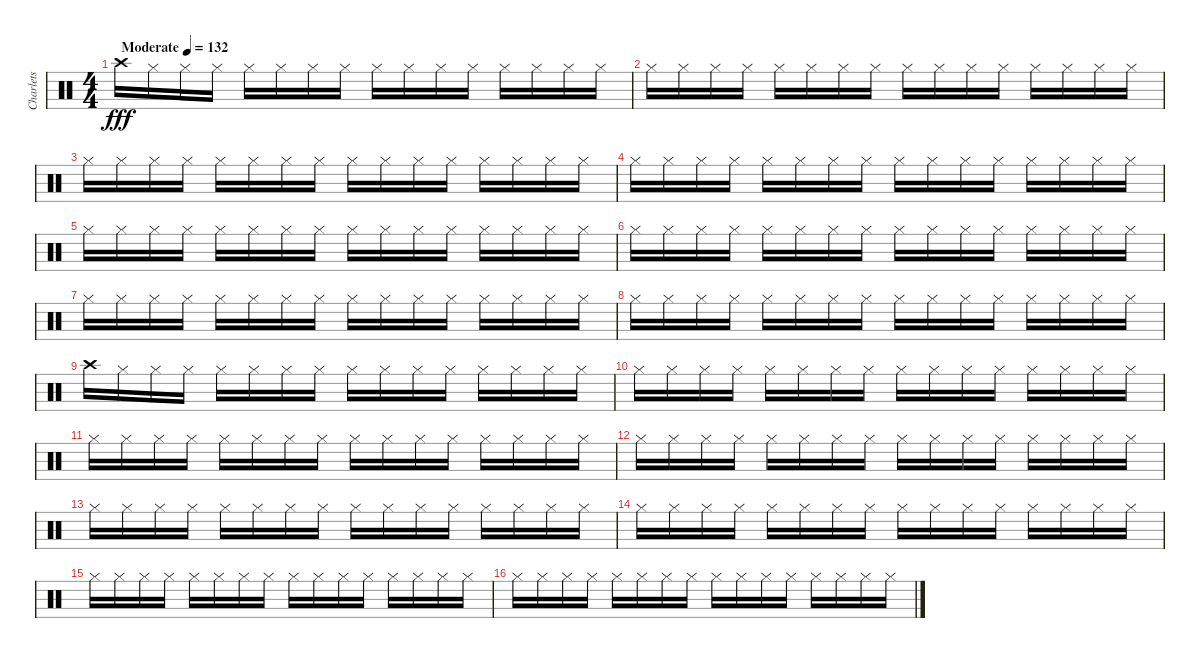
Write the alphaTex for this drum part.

\track ("Charlets" "Charlets") {instrument percussion}
\staff {score}
\articulation defaults
\ts (4 4)
\tempo (132 "Moderate")
\clef neutral
\ks c "Crash high (hit)".16{dy fff} "Hi-Hat (closed)".16 "Hi-Hat (closed)".16 "Hi-Hat (closed)".16 "Hi-Hat (closed)".16 "Hi-Hat (closed)".16 "Hi-Hat (closed)".16 "Hi-Hat (closed)".16 "Hi-Hat (closed)".16 "Hi-Hat (closed)".16 "Hi-Hat (closed)".16 "Hi-Hat (closed)".16 "Hi-Hat (closed)".16 "Hi-Hat (closed)".16 "Hi-Hat (closed)".16 "Hi-Hat (closed)".16
|
"Hi-Hat (closed)".16 "Hi-Hat (closed)".16 "Hi-Hat (closed)".16 "Hi-Hat (closed)".16 "Hi-Hat (closed)".16 "Hi-Hat (closed)".16 "Hi-Hat (closed)".16 "Hi-Hat (closed)".16 "Hi-Hat (closed)".16 "Hi-Hat (closed)".16 "Hi-Hat (closed)".16 "Hi-Hat (closed)".16 "Hi-Hat (closed)".16 "Hi-Hat (closed)".16 "Hi-Hat (closed)".16 "Hi-Hat (closed)".16 |
"Hi-Hat (closed)".16 "Hi-Hat (closed)".16 "Hi-Hat (closed)".16 "Hi-Hat (closed)".16 "Hi-Hat (closed)".16 "Hi-Hat (closed)".16 "Hi-Hat (closed)".16 "Hi-Hat (closed)".16 "Hi-Hat (closed)".16 "Hi-Hat (closed)".16 "Hi-Hat (closed)".16 "Hi-Hat (closed)".16 "Hi-Hat (closed)".16 "Hi-Hat (closed)".16 "Hi-Hat (closed)".16 "Hi-Hat (closed)".16 |
"Hi-Hat (closed)".16 "Hi-Hat (closed)".16 "Hi-Hat (closed)".16 "Hi-Hat (closed)".16 "Hi-Hat (closed)".16 "Hi-Hat (closed)".16 "Hi-Hat (closed)".16 "Hi-Hat (closed)".16 "Hi-Hat (closed)".16 "Hi-Hat (closed)".16 "Hi-Hat (closed)".16 "Hi-Hat (closed)".16 "Hi-Hat (closed)".16 "Hi-Hat (closed)".16 "Hi-Hat (closed)".16 "Hi-Hat (closed)".16 |
"Hi-Hat (closed)".16 "Hi-Hat (closed)".16 "Hi-Hat (closed)".16 "Hi-Hat (closed)".16 "Hi-Hat (closed)".16 "Hi-Hat (closed)".16 "Hi-Hat (closed)".16 "Hi-Hat (closed)".16 "Hi-Hat (closed)".16 "Hi-Hat (closed)".16 "Hi-Hat (closed)".16 "Hi-Hat (closed)".16 "Hi-Hat (closed)".16 "Hi-Hat (closed)".16 "Hi-Hat (closed)".16 "Hi-Hat (closed)".16 |
"Hi-Hat (closed)".16 "Hi-Hat (closed)".16 "Hi-Hat (closed)".16 "Hi-Hat (closed)".16 "Hi-Hat (closed)".16 "Hi-Hat (closed)".16 "Hi-Hat (closed)".16 "Hi-Hat (closed)".16 "Hi-Hat (closed)".16 "Hi-Hat (closed)".16 "Hi-Hat (closed)".16 "Hi-Hat (closed)".16 "Hi-Hat (closed)".16 "Hi-Hat (closed)".16 "Hi-Hat (closed)".16 "Hi-Hat (closed)".16 |
"Hi-Hat (closed)".16 "Hi-Hat (closed)".16 "Hi-Hat (closed)".16 "Hi-Hat (closed)".16 "Hi-Hat (closed)".16 "Hi-Hat (closed)".16 "Hi-Hat (closed)".16 "Hi-Hat (closed)".16 "Hi-Hat (closed)".16 "Hi-Hat (closed)".16 "Hi-Hat (closed)".16 "Hi-Hat (closed)".16 "Hi-Hat (closed)".16 "Hi-Hat (closed)".16 "Hi-Hat (closed)".16 "Hi-Hat (closed)".16 |
"Hi-Hat (closed)".16 "Hi-Hat (closed)".16 "Hi-Hat (closed)".16 "Hi-Hat (closed)".16 "Hi-Hat (closed)".16 "Hi-Hat (closed)".16 "Hi-Hat (closed)".16 "Hi-Hat (closed)".16 "Hi-Hat (closed)".16 "Hi-Hat (closed)".16 "Hi-Hat (closed)".16 "Hi-Hat (closed)".16 "Hi-Hat (closed)".16 "Hi-Hat (closed)".16 "Hi-Hat (closed)".16 "Hi-Hat (closed)".16 |
"Crash high (hit)".16 "Hi-Hat (closed)".16 "Hi-Hat (closed)".16 "Hi-Hat (closed)".16 "Hi-Hat (closed)".16 "Hi-Hat (closed)".16 "Hi-Hat (closed)".16 "Hi-Hat (closed)".16 "Hi-Hat (closed)".16 "Hi-Hat (closed)".16 "Hi-Hat (closed)".16 "Hi-Hat (closed)".16 "Hi-Hat (closed)".16 "Hi-Hat (closed)".16 "Hi-Hat (closed)".16 "Hi-Hat (closed)".16 |
"Hi-Hat (closed)".16 "Hi-Hat (closed)".16 "Hi-Hat (closed)".16 "Hi-Hat (closed)".16 "Hi-Hat (closed)".16 "Hi-Hat (closed)".16 "Hi-Hat (closed)".16 "Hi-Hat (closed)".16 "Hi-Hat (closed)".16 "Hi-Hat (closed)".16 "Hi-Hat (closed)".16 "Hi-Hat (closed)".16 "Hi-Hat (closed)".16 "Hi-Hat (closed)".16 "Hi-Hat (closed)".16 "Hi-Hat (closed)".16 |
"Hi-Hat (closed)".16 "Hi-Hat (closed)".16 "Hi-Hat (closed)".16 "Hi-Hat (closed)".16 "Hi-Hat (closed)".16 "Hi-Hat (closed)".16 "Hi-Hat (closed)".16 "Hi-Hat (closed)".16 "Hi-Hat (closed)".16 "Hi-Hat (closed)".16 "Hi-Hat (closed)".16 "Hi-Hat (closed)".16 "Hi-Hat (closed)".16 "Hi-Hat (closed)".16 "Hi-Hat (closed)".16 "Hi-Hat (closed)".16 |
"Hi-Hat (closed)".16 "Hi-Hat (closed)".16 "Hi-Hat (closed)".16 "Hi-Hat (closed)".16 "Hi-Hat (closed)".16 "Hi-Hat (closed)".16 "Hi-Hat (closed)".16 "Hi-Hat (closed)".16 "Hi-Hat (closed)".16 "Hi-Hat (closed)".16 "Hi-Hat (closed)".16 "Hi-Hat (closed)".16 "Hi-Hat (closed)".16 "Hi-Hat (closed)".16 "Hi-Hat (closed)".16 "Hi-Hat (closed)".16 |
"Hi-Hat (closed)".16 "Hi-Hat (closed)".16 "Hi-Hat (closed)".16 "Hi-Hat (closed)".16 "Hi-Hat (closed)".16 "Hi-Hat (closed)".16 "Hi-Hat (closed)".16 "Hi-Hat (closed)".16 "Hi-Hat (closed)".16 "Hi-Hat (closed)".16 "Hi-Hat (closed)".16 "Hi-Hat (closed)".16 "Hi-Hat (closed)".16 "Hi-Hat (closed)".16 "Hi-Hat (closed)".16 "Hi-Hat (closed)".16 |
"Hi-Hat (closed)".16 "Hi-Hat (closed)".16 "Hi-Hat (closed)".16 "Hi-Hat (closed)".16 "Hi-Hat (closed)".16 "Hi-Hat (closed)".16 "Hi-Hat (closed)".16 "Hi-Hat (closed)".16 "Hi-Hat (closed)".16 "Hi-Hat (closed)".16 "Hi-Hat (closed)".16 "Hi-Hat (closed)".16 "Hi-Hat (closed)".16 "Hi-Hat (closed)".16 "Hi-Hat (closed)".16 "Hi-Hat (closed)".16 |
"Hi-Hat (closed)".16 "Hi-Hat (closed)".16 "Hi-Hat (closed)".16 "Hi-Hat (closed)".16 "Hi-Hat (closed)".16 "Hi-Hat (closed)".16 "Hi-Hat (closed)".16 "Hi-Hat (closed)".16 "Hi-Hat (closed)".16 "Hi-Hat (closed)".16 "Hi-Hat (closed)".16 "Hi-Hat (closed)".16 "Hi-Hat (closed)".16 "Hi-Hat (closed)".16 "Hi-Hat (closed)".16 "Hi-Hat (closed)".16 |
"Hi-Hat (closed)".16 "Hi-Hat (closed)".16 "Hi-Hat (closed)".16 "Hi-Hat (closed)".16 "Hi-Hat (closed)".16 "Hi-Hat (closed)".16 "Hi-Hat (closed)".16 "Hi-Hat (closed)".16 "Hi-Hat (closed)".16 "Hi-Hat (closed)".16 "Hi-Hat (closed)".16 "Hi-Hat (closed)".16 "Hi-Hat (closed)".16 "Hi-Hat (closed)".16 "Hi-Hat (closed)".16 "Hi-Hat (closed)".16
